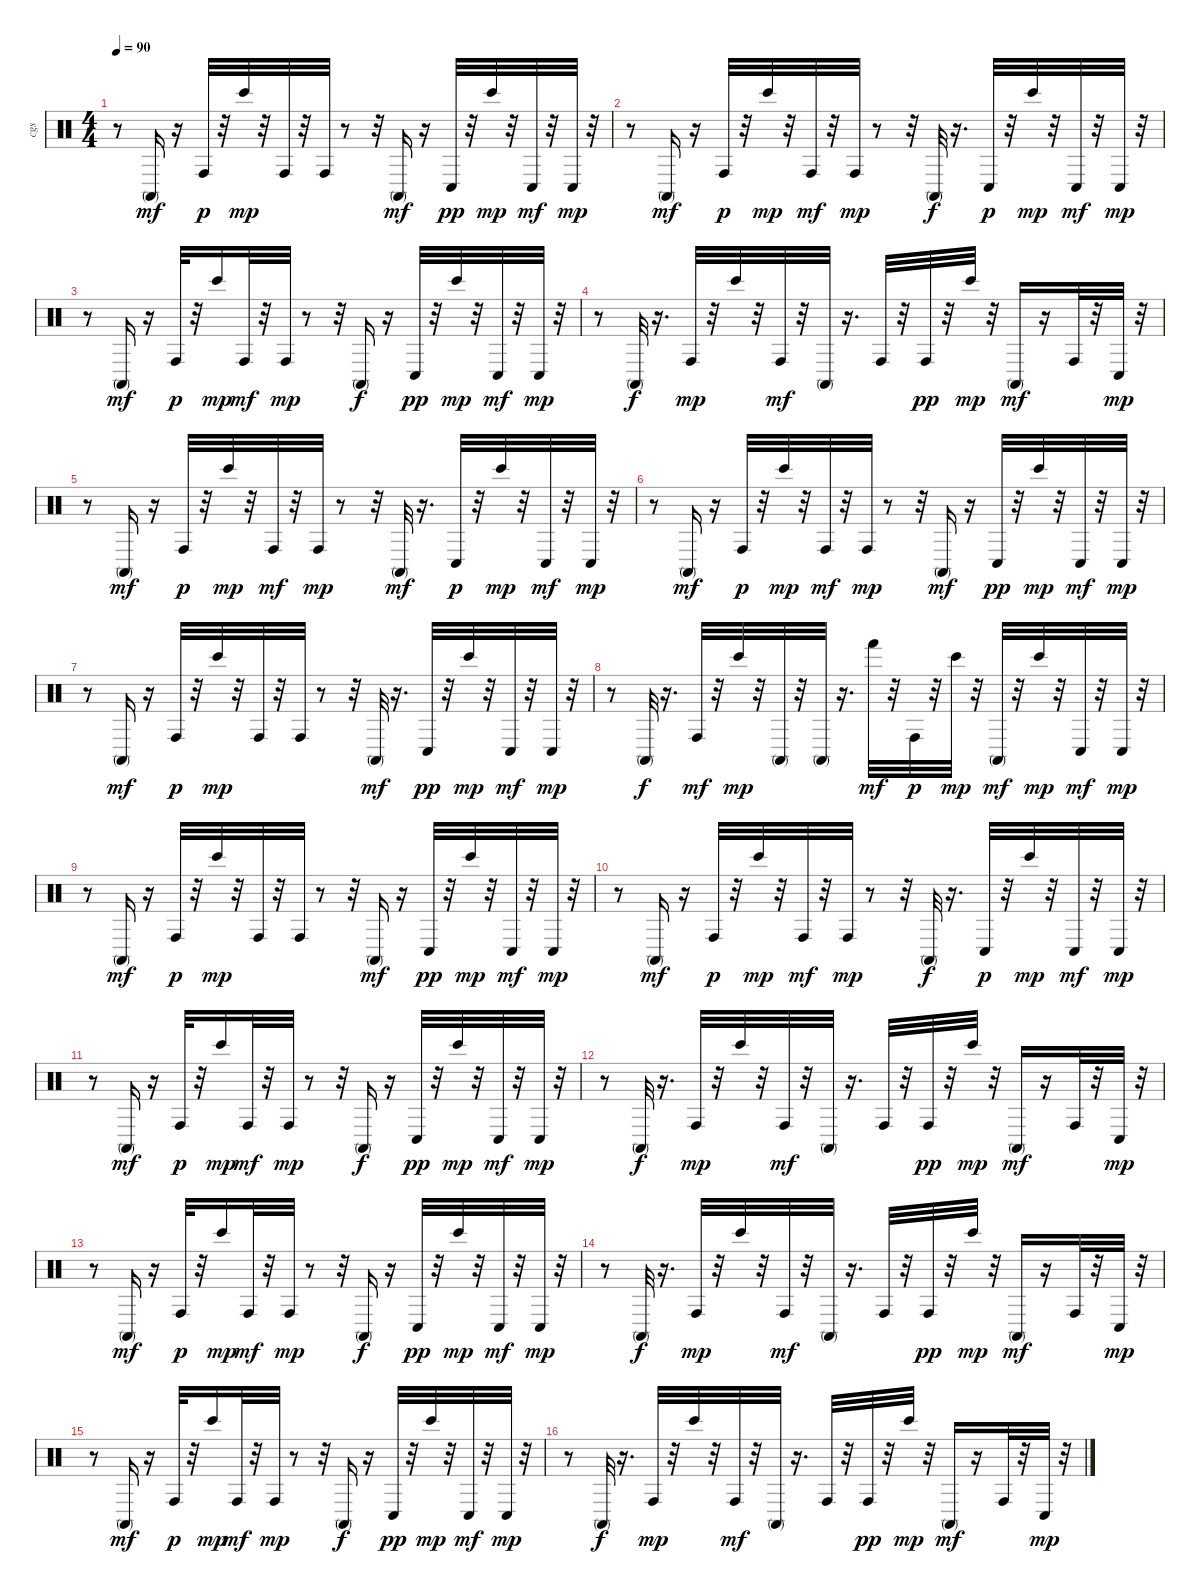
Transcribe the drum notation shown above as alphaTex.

\track ("cgs" "cgs") {instrument percussion}
\staff {score}
\articulation defaults
\ts (4 4)
\tempo 90
\clef neutral
\ks c
r.8{dy mp} "Conga high (mute)".16{dy mf} r.16 "Conga high (hit)".32{dy p} r.32 "Bongo High (hit)".32{dy mp} r.32 "Conga high (hit)".32 r.32 "Conga high (hit)".32 r.8 r.32 "Conga high (mute)".16{dy mf} r.16 "Conga low (hit)".32{dy pp} r.32 "Bongo High (hit)".32{dy mp} r.32 "Conga low (hit)".32{dy mf} r.32 "Conga low (hit)".32{dy mp} r.32 |
r.8 "Conga high (mute)".16{dy mf} r.16 "Conga high (hit)".32{dy p} r.32 "Bongo High (hit)".32{dy mp} r.32 "Conga high (hit)".32{dy mf} r.32 "Conga high (hit)".32{dy mp} r.8 r.32 "Conga high (mute)".32{dy f} r.16{d} "Conga low (hit)".32{dy p} r.32 "Bongo High (hit)".32{dy mp} r.32 "Conga low (hit)".32{dy mf} r.32 "Conga low (hit)".32{dy mp} r.32 |
r.8 "Conga high (mute)".16{dy mf} r.16 "Conga high (hit)".32{dy p} r.32 "Bongo High (hit)".16{dy mp} "Conga high (hit)".32{dy mf} r.32 "Conga high (hit)".32{dy mp} r.8 r.32 "Conga high (mute)".16{dy f} r.16 "Conga low (hit)".32{dy pp} r.32 "Bongo High (hit)".32{dy mp} r.32 "Conga low (hit)".32{dy mf} r.32 "Conga low (hit)".32{dy mp} r.32 |
r.8 "Conga high (mute)".32{dy f} r.16{d} "Conga high (hit)".32{dy mp} r.32 "Bongo High (hit)".32 r.32 "Conga high (hit)".32{dy mf} r.32 "Conga high (mute)".32 r.16{d} "Conga high (hit)".32 r.32 "Conga high (hit)".32{dy pp} r.32 "Bongo High (hit)".32{dy mp} r.32 "Conga high (mute)".16{dy mf} r.16 "Conga high (hit)".32 r.32 "Conga low (hit)".32{dy mp} r.32 |
r.8 "Conga high (mute)".16{dy mf} r.16 "Conga high (hit)".32{dy p} r.32 "Bongo High (hit)".32{dy mp} r.32 "Conga high (hit)".32{dy mf} r.32 "Conga high (hit)".32{dy mp} r.8 r.32 "Conga high (mute)".32{dy mf} r.16{d} "Conga low (hit)".32{dy p} r.32 "Bongo High (hit)".32{dy mp} r.32 "Conga low (hit)".32{dy mf} r.32 "Conga low (hit)".32{dy mp} r.32 |
r.8 "Conga high (mute)".16{dy mf} r.16 "Conga high (hit)".32{dy p} r.32 "Bongo High (hit)".32{dy mp} r.32 "Conga high (hit)".32{dy mf} r.32 "Conga high (hit)".32{dy mp} r.8 r.32 "Conga high (mute)".16{dy mf} r.16 "Conga low (hit)".32{dy pp} r.32 "Bongo High (hit)".32{dy mp} r.32 "Conga low (hit)".32{dy mf} r.32 "Conga low (hit)".32{dy mp} r.32 |
r.8 "Conga high (mute)".16{dy mf} r.16 "Conga high (hit)".32{dy p} r.32 "Bongo High (hit)".32{dy mp} r.32 "Conga high (hit)".32 r.32 "Conga high (hit)".32 r.8 r.32 "Conga high (mute)".32{dy mf} r.16{d} "Conga low (hit)".32{dy pp} r.32 "Bongo High (hit)".32{dy mp} r.32 "Conga low (hit)".32{dy mf} r.32 "Conga low (hit)".32{dy mp} r.32 |
r.8 "Conga high (mute)".32{dy f} r.16{d} "Conga high (hit)".32{dy mf} r.32 "Bongo High (hit)".32{dy mp} r.32 "Conga high (mute)".32 r.32 "Conga high (mute)".32 r.16{d} "Hand (hit)".32{dy mf} r.32 "Conga high (hit)".32{dy p} r.32 "Bongo High (hit)".32{dy mp} r.32 "Conga high (mute)".32{dy mf} r.32 "Bongo High (hit)".32{dy mp} r.32 "Conga low (hit)".32{dy mf} r.32 "Conga low (hit)".32{dy mp} r.32 |
r.8 "Conga high (mute)".16{dy mf} r.16 "Conga high (hit)".32{dy p} r.32 "Bongo High (hit)".32{dy mp} r.32 "Conga high (hit)".32 r.32 "Conga high (hit)".32 r.8 r.32 "Conga high (mute)".16{dy mf} r.16 "Conga low (hit)".32{dy pp} r.32 "Bongo High (hit)".32{dy mp} r.32 "Conga low (hit)".32{dy mf} r.32 "Conga low (hit)".32{dy mp} r.32 |
r.8 "Conga high (mute)".16{dy mf} r.16 "Conga high (hit)".32{dy p} r.32 "Bongo High (hit)".32{dy mp} r.32 "Conga high (hit)".32{dy mf} r.32 "Conga high (hit)".32{dy mp} r.8 r.32 "Conga high (mute)".32{dy f} r.16{d} "Conga low (hit)".32{dy p} r.32 "Bongo High (hit)".32{dy mp} r.32 "Conga low (hit)".32{dy mf} r.32 "Conga low (hit)".32{dy mp} r.32 |
r.8 "Conga high (mute)".16{dy mf} r.16 "Conga high (hit)".32{dy p} r.32 "Bongo High (hit)".16{dy mp} "Conga high (hit)".32{dy mf} r.32 "Conga high (hit)".32{dy mp} r.8 r.32 "Conga high (mute)".16{dy f} r.16 "Conga low (hit)".32{dy pp} r.32 "Bongo High (hit)".32{dy mp} r.32 "Conga low (hit)".32{dy mf} r.32 "Conga low (hit)".32{dy mp} r.32 |
r.8 "Conga high (mute)".32{dy f} r.16{d} "Conga high (hit)".32{dy mp} r.32 "Bongo High (hit)".32 r.32 "Conga high (hit)".32{dy mf} r.32 "Conga high (mute)".32 r.16{d} "Conga high (hit)".32 r.32 "Conga high (hit)".32{dy pp} r.32 "Bongo High (hit)".32{dy mp} r.32 "Conga high (mute)".16{dy mf} r.16 "Conga high (hit)".32 r.32 "Conga low (hit)".32{dy mp} r.32 |
r.8 "Conga high (mute)".16{dy mf} r.16 "Conga high (hit)".32{dy p} r.32 "Bongo High (hit)".16{dy mp} "Conga high (hit)".32{dy mf} r.32 "Conga high (hit)".32{dy mp} r.8 r.32 "Conga high (mute)".16{dy f} r.16 "Conga low (hit)".32{dy pp} r.32 "Bongo High (hit)".32{dy mp} r.32 "Conga low (hit)".32{dy mf} r.32 "Conga low (hit)".32{dy mp} r.32 |
r.8 "Conga high (mute)".32{dy f} r.16{d} "Conga high (hit)".32{dy mp} r.32 "Bongo High (hit)".32 r.32 "Conga high (hit)".32{dy mf} r.32 "Conga high (mute)".32 r.16{d} "Conga high (hit)".32 r.32 "Conga high (hit)".32{dy pp} r.32 "Bongo High (hit)".32{dy mp} r.32 "Conga high (mute)".16{dy mf} r.16 "Conga high (hit)".32 r.32 "Conga low (hit)".32{dy mp} r.32 |
r.8 "Conga high (mute)".16{dy mf} r.16 "Conga high (hit)".32{dy p} r.32 "Bongo High (hit)".16{dy mp} "Conga high (hit)".32{dy mf} r.32 "Conga high (hit)".32{dy mp} r.8 r.32 "Conga high (mute)".16{dy f} r.16 "Conga low (hit)".32{dy pp} r.32 "Bongo High (hit)".32{dy mp} r.32 "Conga low (hit)".32{dy mf} r.32 "Conga low (hit)".32{dy mp} r.32 |
r.8 "Conga high (mute)".32{dy f} r.16{d} "Conga high (hit)".32{dy mp} r.32 "Bongo High (hit)".32 r.32 "Conga high (hit)".32{dy mf} r.32 "Conga high (mute)".32 r.16{d} "Conga high (hit)".32 r.32 "Conga high (hit)".32{dy pp} r.32 "Bongo High (hit)".32{dy mp} r.32 "Conga high (mute)".16{dy mf} r.16 "Conga high (hit)".32 r.32 "Conga low (hit)".32{dy mp} r.32
